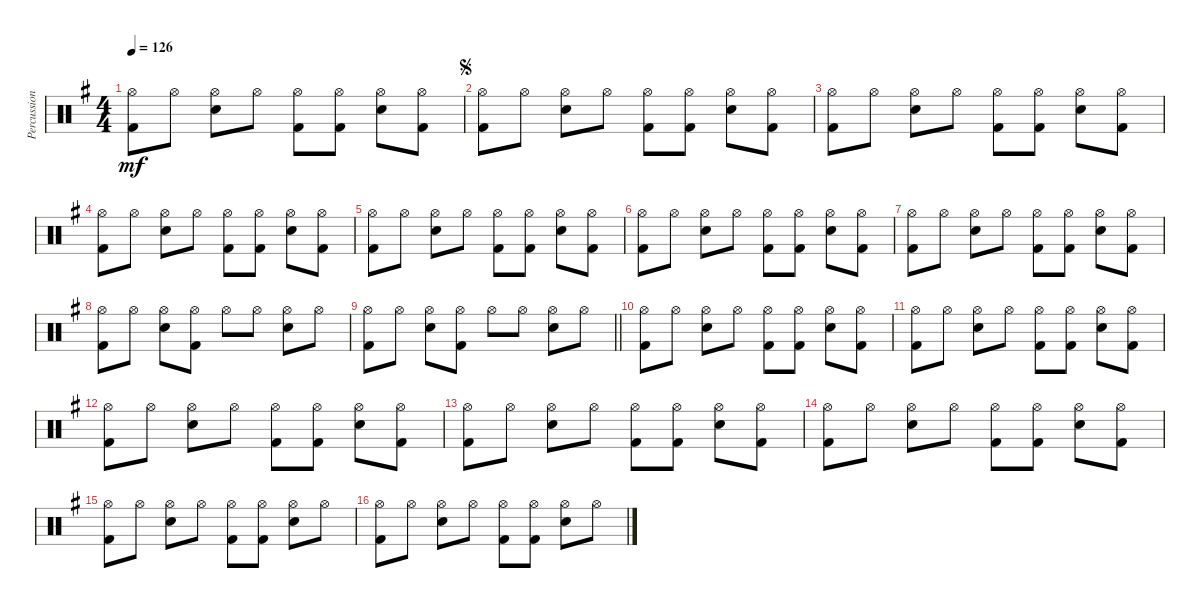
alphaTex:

\track ("Percussion" "Percussion") {instrument percussion}
\staff {score}
\articulation defaults
\ts (4 4)
\tempo 126
\clef neutral
\ks g
("Hi-Hat (open)" "Kick (hit) 2").8{dy mf} "Hi-Hat (open)".8 ("Hi-Hat (open)" "Snare (hit) 2").8 "Hi-Hat (open)".8 ("Hi-Hat (open)" "Kick (hit) 2").8 ("Hi-Hat (open)" "Kick (hit) 2").8 ("Hi-Hat (open)" "Snare (hit) 2").8 ("Hi-Hat (open)" "Kick (hit) 2").8 |
\jump segno
("Hi-Hat (open)" "Kick (hit) 2").8 "Hi-Hat (open)".8 ("Hi-Hat (open)" "Snare (hit) 2").8 "Hi-Hat (open)".8 ("Hi-Hat (open)" "Kick (hit) 2").8 ("Hi-Hat (open)" "Kick (hit) 2").8 ("Hi-Hat (open)" "Snare (hit) 2").8 ("Hi-Hat (open)" "Kick (hit) 2").8 |
("Hi-Hat (open)" "Kick (hit) 2").8 "Hi-Hat (open)".8 ("Hi-Hat (open)" "Snare (hit) 2").8 "Hi-Hat (open)".8 ("Hi-Hat (open)" "Kick (hit) 2").8 ("Hi-Hat (open)" "Kick (hit) 2").8 ("Hi-Hat (open)" "Snare (hit) 2").8 ("Hi-Hat (open)" "Kick (hit) 2").8 |
("Hi-Hat (open)" "Kick (hit) 2").8 "Hi-Hat (open)".8 ("Hi-Hat (open)" "Snare (hit) 2").8 "Hi-Hat (open)".8 ("Hi-Hat (open)" "Kick (hit) 2").8 ("Hi-Hat (open)" "Kick (hit) 2").8 ("Hi-Hat (open)" "Snare (hit) 2").8 ("Hi-Hat (open)" "Kick (hit) 2").8 |
("Hi-Hat (open)" "Kick (hit) 2").8 "Hi-Hat (open)".8 ("Hi-Hat (open)" "Snare (hit) 2").8 "Hi-Hat (open)".8 ("Hi-Hat (open)" "Kick (hit) 2").8 ("Hi-Hat (open)" "Kick (hit) 2").8 ("Hi-Hat (open)" "Snare (hit) 2").8 ("Hi-Hat (open)" "Kick (hit) 2").8 |
("Hi-Hat (open)" "Kick (hit) 2").8 "Hi-Hat (open)".8 ("Hi-Hat (open)" "Snare (hit) 2").8 "Hi-Hat (open)".8 ("Hi-Hat (open)" "Kick (hit) 2").8 ("Hi-Hat (open)" "Kick (hit) 2").8 ("Hi-Hat (open)" "Snare (hit) 2").8 ("Hi-Hat (open)" "Kick (hit) 2").8 |
("Hi-Hat (open)" "Kick (hit) 2").8 "Hi-Hat (open)".8 ("Hi-Hat (open)" "Snare (hit) 2").8 "Hi-Hat (open)".8 ("Hi-Hat (open)" "Kick (hit) 2").8 ("Hi-Hat (open)" "Kick (hit) 2").8 ("Hi-Hat (open)" "Snare (hit) 2").8 ("Hi-Hat (open)" "Kick (hit) 2").8 |
("Hi-Hat (open)" "Kick (hit) 2").8 "Hi-Hat (open)".8 ("Hi-Hat (open)" "Snare (hit) 2").8 ("Hi-Hat (open)" "Kick (hit) 2").8 "Hi-Hat (open)".8 "Hi-Hat (open)".8 ("Hi-Hat (open)" "Snare (hit) 2").8 "Hi-Hat (open)".8 |
\barLineRight lightlight
("Hi-Hat (open)" "Kick (hit) 2").8 "Hi-Hat (open)".8 ("Hi-Hat (open)" "Snare (hit) 2").8 ("Hi-Hat (open)" "Kick (hit) 2").8 "Hi-Hat (open)".8 "Hi-Hat (open)".8 ("Hi-Hat (open)" "Snare (hit) 2").8 "Hi-Hat (open)".8 |
("Hi-Hat (open)" "Kick (hit) 2").8 "Hi-Hat (open)".8 ("Hi-Hat (open)" "Snare (hit) 2").8 "Hi-Hat (open)".8 ("Hi-Hat (open)" "Kick (hit) 2").8 ("Hi-Hat (open)" "Kick (hit) 2").8 ("Hi-Hat (open)" "Snare (hit) 2").8 ("Hi-Hat (open)" "Kick (hit) 2").8 |
("Hi-Hat (open)" "Kick (hit) 2").8 "Hi-Hat (open)".8 ("Hi-Hat (open)" "Snare (hit) 2").8 "Hi-Hat (open)".8 ("Hi-Hat (open)" "Kick (hit) 2").8 ("Hi-Hat (open)" "Kick (hit) 2").8 ("Hi-Hat (open)" "Snare (hit) 2").8 ("Hi-Hat (open)" "Kick (hit) 2").8 |
("Hi-Hat (open)" "Kick (hit) 2").8 "Hi-Hat (open)".8 ("Hi-Hat (open)" "Snare (hit) 2").8 "Hi-Hat (open)".8 ("Hi-Hat (open)" "Kick (hit) 2").8 ("Hi-Hat (open)" "Kick (hit) 2").8 ("Hi-Hat (open)" "Snare (hit) 2").8 ("Hi-Hat (open)" "Kick (hit) 2").8 |
("Hi-Hat (open)" "Kick (hit) 2").8 "Hi-Hat (open)".8 ("Hi-Hat (open)" "Snare (hit) 2").8 "Hi-Hat (open)".8 ("Hi-Hat (open)" "Kick (hit) 2").8 ("Hi-Hat (open)" "Kick (hit) 2").8 ("Hi-Hat (open)" "Snare (hit) 2").8 ("Hi-Hat (open)" "Kick (hit) 2").8 |
("Hi-Hat (open)" "Kick (hit) 2").8 "Hi-Hat (open)".8 ("Hi-Hat (open)" "Snare (hit) 2").8 "Hi-Hat (open)".8 ("Hi-Hat (open)" "Kick (hit) 2").8 ("Hi-Hat (open)" "Kick (hit) 2").8 ("Hi-Hat (open)" "Snare (hit) 2").8 ("Hi-Hat (open)" "Kick (hit) 2").8 |
("Hi-Hat (open)" "Kick (hit) 2").8 "Hi-Hat (open)".8 ("Hi-Hat (open)" "Snare (hit) 2").8 "Hi-Hat (open)".8 ("Hi-Hat (open)" "Kick (hit) 2").8 ("Hi-Hat (open)" "Kick (hit) 2").8 ("Hi-Hat (open)" "Snare (hit) 2").8 "Hi-Hat (open)".8 |
("Hi-Hat (open)" "Kick (hit) 2").8 "Hi-Hat (open)".8 ("Hi-Hat (open)" "Snare (hit) 2").8 "Hi-Hat (open)".8 ("Hi-Hat (open)" "Kick (hit) 2").8 ("Hi-Hat (open)" "Kick (hit) 2").8 ("Hi-Hat (open)" "Snare (hit) 2").8 "Hi-Hat (open)".8
